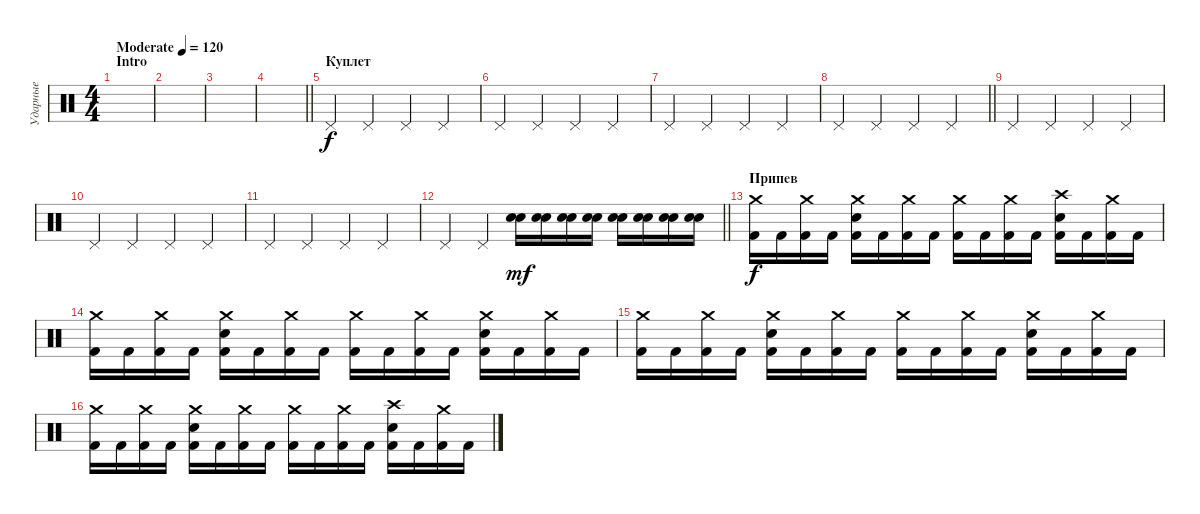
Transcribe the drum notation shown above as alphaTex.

\track ("Ударные" "Ударные") {instrument percussion}
\staff {score}
\articulation defaults
\ts (4 4)
\section ("" "Intro")
\tempo (120 "Moderate")
\clef neutral
\ks c
|
|
|
\barLineRight lightlight
|
\section ("" "Куплет")
"Pedal Hi-Hat (hit)".4 "Pedal Hi-Hat (hit)".4 "Pedal Hi-Hat (hit)".4 "Pedal Hi-Hat (hit)".4 |
"Pedal Hi-Hat (hit)".4 "Pedal Hi-Hat (hit)".4 "Pedal Hi-Hat (hit)".4 "Pedal Hi-Hat (hit)".4 |
"Pedal Hi-Hat (hit)".4 "Pedal Hi-Hat (hit)".4 "Pedal Hi-Hat (hit)".4 "Pedal Hi-Hat (hit)".4 |
\barLineRight lightlight "Pedal Hi-Hat (hit)".4 "Pedal Hi-Hat (hit)".4 "Pedal Hi-Hat (hit)".4 "Pedal Hi-Hat (hit)".4
|
"Pedal Hi-Hat (hit)".4 "Pedal Hi-Hat (hit)".4 "Pedal Hi-Hat (hit)".4 "Pedal Hi-Hat (hit)".4 |
"Pedal Hi-Hat (hit)".4 "Pedal Hi-Hat (hit)".4 "Pedal Hi-Hat (hit)".4 "Pedal Hi-Hat (hit)".4 |
"Pedal Hi-Hat (hit)".4 "Pedal Hi-Hat (hit)".4 "Pedal Hi-Hat (hit)".4 "Pedal Hi-Hat (hit)".4 |
\barLineRight lightlight "Pedal Hi-Hat (hit)".4 "Pedal Hi-Hat (hit)".4
("Electric Snare (hit)" "Snare (hit) 2").16{dy mf} ("Electric Snare (hit)" "Snare (hit) 2").16 ("Electric Snare (hit)" "Snare (hit) 2").16 ("Electric Snare (hit)" "Snare (hit) 2").16 ("Electric Snare (hit)" "Snare (hit) 2").16 ("Electric Snare (hit)" "Snare (hit) 2").16 ("Electric Snare (hit)" "Snare (hit) 2").16 ("Electric Snare (hit)" "Snare (hit) 2").16 |
\section ("" "Припев")
("Crash medium (hit)" "Kick (hit) 2").16{dy f} "Kick (hit) 2".16 ("Crash medium (hit)" "Kick (hit) 2").16 "Kick (hit) 2".16 ("Crash medium (hit)" "Electric Snare (hit)" "Kick (hit) 2").16 "Kick (hit) 2".16 ("Crash medium (hit)" "Kick (hit) 2").16 "Kick (hit) 2".16 ("Crash medium (hit)" "Kick (hit) 2").16 "Kick (hit) 2".16 ("Crash medium (hit)" "Kick (hit) 2").16 "Kick (hit) 2".16 ("Crash high (hit)" "Electric Snare (hit)" "Kick (hit) 2").16 "Kick (hit) 2".16 ("Crash medium (hit)" "Kick (hit) 2").16 "Kick (hit) 2".16 |
("Crash medium (hit)" "Kick (hit) 2").16 "Kick (hit) 2".16 ("Crash medium (hit)" "Kick (hit) 2").16 "Kick (hit) 2".16 ("Crash medium (hit)" "Electric Snare (hit)" "Kick (hit) 2").16 "Kick (hit) 2".16 ("Crash medium (hit)" "Kick (hit) 2").16 "Kick (hit) 2".16 ("Crash medium (hit)" "Kick (hit) 2").16 "Kick (hit) 2".16 ("Crash medium (hit)" "Kick (hit) 2").16 "Kick (hit) 2".16 ("Crash medium (hit)" "Electric Snare (hit)" "Kick (hit) 2").16 "Kick (hit) 2".16 ("Crash medium (hit)" "Kick (hit) 2").16 "Kick (hit) 2".16 |
("Crash medium (hit)" "Kick (hit) 2").16 "Kick (hit) 2".16 ("Crash medium (hit)" "Kick (hit) 2").16 "Kick (hit) 2".16 ("Crash medium (hit)" "Electric Snare (hit)" "Kick (hit) 2").16 "Kick (hit) 2".16 ("Crash medium (hit)" "Kick (hit) 2").16 "Kick (hit) 2".16 ("Crash medium (hit)" "Kick (hit) 2").16 "Kick (hit) 2".16 ("Crash medium (hit)" "Kick (hit) 2").16 "Kick (hit) 2".16 ("Crash medium (hit)" "Electric Snare (hit)" "Kick (hit) 2").16 "Kick (hit) 2".16 ("Crash medium (hit)" "Kick (hit) 2").16 "Kick (hit) 2".16 |
("Crash medium (hit)" "Kick (hit) 2").16 "Kick (hit) 2".16 ("Crash medium (hit)" "Kick (hit) 2").16 "Kick (hit) 2".16 ("Crash medium (hit)" "Electric Snare (hit)" "Kick (hit) 2").16 "Kick (hit) 2".16 ("Crash medium (hit)" "Kick (hit) 2").16 "Kick (hit) 2".16 ("Crash medium (hit)" "Kick (hit) 2").16 "Kick (hit) 2".16 ("Crash medium (hit)" "Kick (hit) 2").16 "Kick (hit) 2".16 ("Crash high (hit)" "Electric Snare (hit)" "Kick (hit) 2").16 "Kick (hit) 2".16 ("Crash medium (hit)" "Kick (hit) 2").16 "Kick (hit) 2".16
